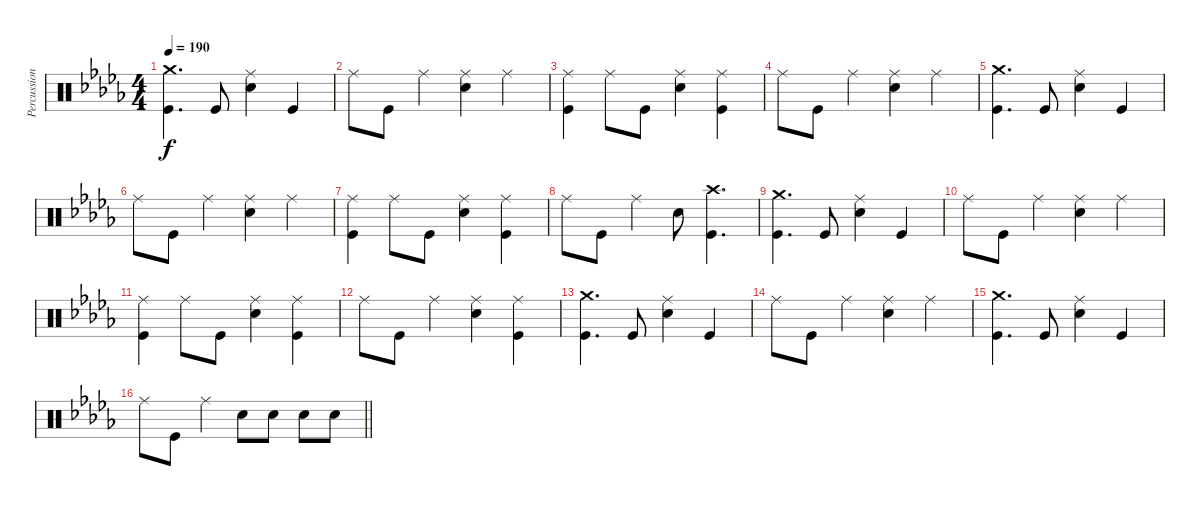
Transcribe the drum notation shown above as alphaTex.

\track ("Percussion" "Percussion") {instrument percussion}
\staff {score}
\articulation defaults
\ts (4 4)
\tempo 190
\clef neutral
\ks db
("Crash medium (hit)" "Kick (hit)").4{d dy f} "Kick (hit)".8 ("Ride (middle)" "Electric Snare (hit)").4 "Kick (hit)".4 |
"Ride (middle)".8 "Kick (hit)".8 "Ride (middle)".4 ("Ride (middle)" "Electric Snare (hit)").4 "Ride (middle)".4 |
("Ride (middle)" "Kick (hit)").4 "Ride (middle)".8 "Kick (hit)".8 ("Ride (middle)" "Electric Snare (hit)").4 ("Ride (middle)" "Kick (hit)").4 |
"Ride (middle)".8 "Kick (hit)".8 "Ride (middle)".4 ("Ride (middle)" "Electric Snare (hit)").4 "Ride (middle)".4 |
("Crash medium (hit)" "Kick (hit)").4{d} "Kick (hit)".8 ("Ride (middle)" "Electric Snare (hit)").4 "Kick (hit)".4 |
"Ride (middle)".8 "Kick (hit)".8 "Ride (middle)".4 ("Ride (middle)" "Electric Snare (hit)").4 "Ride (middle)".4 |
("Ride (middle)" "Kick (hit)").4 "Ride (middle)".8 "Kick (hit)".8 ("Ride (middle)" "Electric Snare (hit)").4 ("Ride (middle)" "Kick (hit)").4 |
"Ride (middle)".8 "Kick (hit)".8 "Ride (middle)".4 "Electric Snare (hit)".8 ("Crash high (hit)" "Kick (hit)").4{d} |
("Crash medium (hit)" "Kick (hit)").4{d} "Kick (hit)".8 ("Ride (middle)" "Electric Snare (hit)").4 "Kick (hit)".4 |
"Ride (middle)".8 "Kick (hit)".8 "Ride (middle)".4 ("Ride (middle)" "Electric Snare (hit)").4 "Ride (middle)".4 |
("Ride (middle)" "Kick (hit)").4 "Ride (middle)".8 "Kick (hit)".8 ("Ride (middle)" "Electric Snare (hit)").4 ("Ride (middle)" "Kick (hit)").4 |
"Ride (middle)".8 "Kick (hit)".8 "Ride (middle)".4 ("Ride (middle)" "Electric Snare (hit)").4 ("Ride (middle)" "Kick (hit)").4 |
("Crash medium (hit)" "Kick (hit)").4{d} "Kick (hit)".8 ("Ride (middle)" "Electric Snare (hit)").4 "Kick (hit)".4 |
"Ride (middle)".8 "Kick (hit)".8 "Ride (middle)".4 ("Ride (middle)" "Electric Snare (hit)").4 "Ride (middle)".4 |
("Crash medium (hit)" "Kick (hit)").4{d} "Kick (hit)".8 ("Ride (middle)" "Electric Snare (hit)").4 "Kick (hit)".4 |
\barLineRight lightlight "Ride (middle)".8 "Kick (hit)".8 "Ride (middle)".4 "Electric Snare (hit)".8 "Electric Snare (hit)".8 "Electric Snare (hit)".8 "Electric Snare (hit)".8
